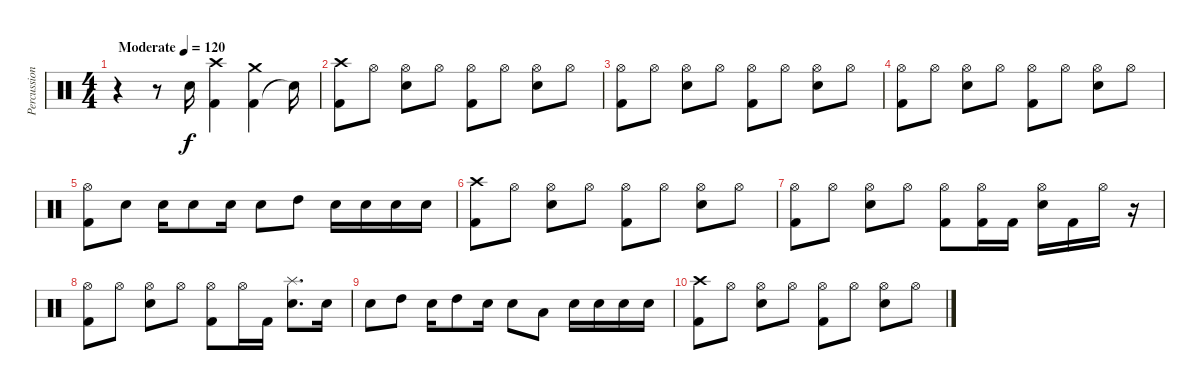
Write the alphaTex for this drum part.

\track ("Percussion" "Percussion") {instrument percussion}
\staff {score}
\articulation defaults
\ts (4 4)
\tempo (120 "Moderate")
\clef neutral
\ks c
r.4{dy f} r.8 "Electric Snare (hit)".16 ("Kick (hit) 2" "Crash high (hit)").4 ("Kick (hit) 2" "Crash medium (hit)").4 "Snare (hit)"{t}.16 |
("Kick (hit) 2" "Crash high (hit)").8 "Hi-Hat (open)".8 ("Hi-Hat (open)" "Electric Snare (hit)").8 "Hi-Hat (open)".8 ("Kick (hit) 2" "Hi-Hat (open)").8 "Hi-Hat (open)".8 ("Electric Snare (hit)" "Hi-Hat (open)").8 "Hi-Hat (open)".8 |
("Kick (hit) 2" "Hi-Hat (open)").8 "Hi-Hat (open)".8 ("Hi-Hat (open)" "Electric Snare (hit)").8 "Hi-Hat (open)".8 ("Kick (hit) 2" "Hi-Hat (open)").8 "Hi-Hat (open)".8 ("Electric Snare (hit)" "Hi-Hat (open)").8 "Hi-Hat (open)".8 |
("Kick (hit) 2" "Hi-Hat (open)").8 "Hi-Hat (open)".8 ("Hi-Hat (open)" "Electric Snare (hit)").8 "Hi-Hat (open)".8 ("Kick (hit) 2" "Hi-Hat (open)").8 "Hi-Hat (open)".8 ("Electric Snare (hit)" "Hi-Hat (open)").8 "Hi-Hat (open)".8 |
("Hi-Hat (open)" "Kick (hit) 2").8 "Electric Snare (hit)".8 "Electric Snare (hit)".16 "Electric Snare (hit)".8 "Electric Snare (hit)".16 "Electric Snare (hit)".8 "High Tom (hit)".8 "Electric Snare (hit)".16 "Electric Snare (hit)".16 "Electric Snare (hit)".16 "Electric Snare (hit)".16 |
("Kick (hit) 2" "Crash high (hit)").8 "Hi-Hat (open)".8 ("Hi-Hat (open)" "Electric Snare (hit)").8 "Hi-Hat (open)".8 ("Kick (hit) 2" "Hi-Hat (open)").8 "Hi-Hat (open)".8 ("Electric Snare (hit)" "Hi-Hat (open)").8 "Hi-Hat (open)".8 |
("Kick (hit) 2" "Hi-Hat (open)").8 "Hi-Hat (open)".8 ("Hi-Hat (open)" "Electric Snare (hit)").8 "Hi-Hat (open)".8 ("Kick (hit) 2" "Hi-Hat (open)").8 ("Kick (hit) 2" "Hi-Hat (open)").16 "Kick (hit) 2".16 ("Electric Snare (hit)" "Hi-Hat (open)").16 "Kick (hit) 2".16 "Hi-Hat (open)".16 r.16 |
("Kick (hit) 2" "Hi-Hat (open)").8 "Hi-Hat (open)".8 ("Hi-Hat (open)" "Electric Snare (hit)").8 "Hi-Hat (open)".8 ("Kick (hit) 2" "Hi-Hat (open)").8 "Hi-Hat (open)".16 "Kick (hit) 2".16 ("Splash (hit)" "Electric Snare (hit)").8{d} "Electric Snare (hit)".16 |
"Electric Snare (hit)".8 "High Tom (hit)".8 "Electric Snare (hit)".16 "High Tom (hit)".8 "Electric Snare (hit)".16 "Electric Snare (hit)".8 "Low Tom (hit)".8 "Electric Snare (hit)".16 "Electric Snare (hit)".16 "Electric Snare (hit)".16 "Electric Snare (hit)".16 |
("Kick (hit) 2" "Crash high (hit)").8 "Hi-Hat (open)".8 ("Hi-Hat (open)" "Electric Snare (hit)").8 "Hi-Hat (open)".8 ("Kick (hit) 2" "Hi-Hat (open)").8 "Hi-Hat (open)".8 ("Electric Snare (hit)" "Hi-Hat (open)").8 "Hi-Hat (open)".8
